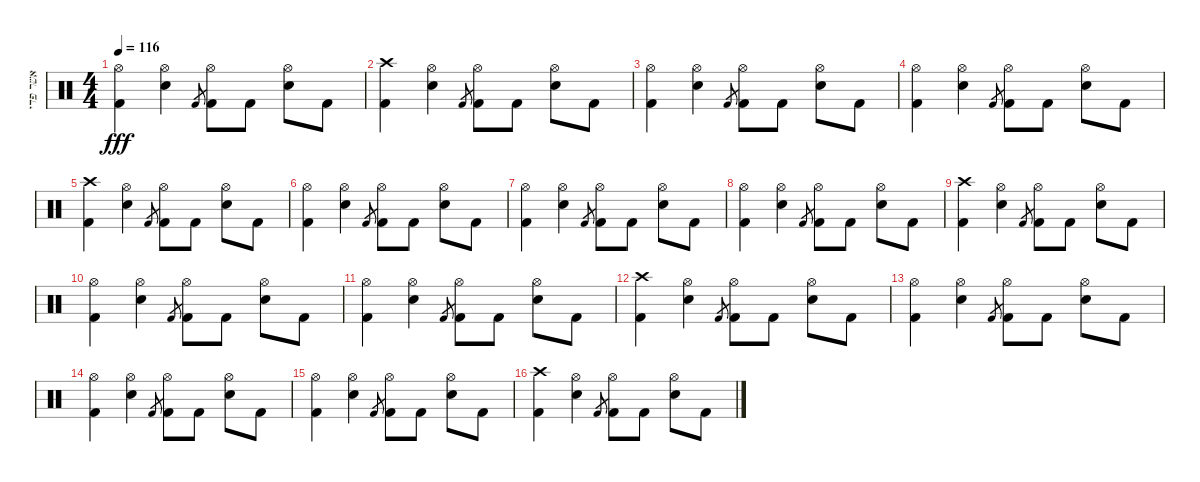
\track ("אשר פדי" "אשר פדי") {instrument percussion}
\staff {score}
\articulation defaults
\ts (4 4)
\tempo 116
\clef neutral
\ks c
("Hi-Hat (open)" "Kick (hit) 2").4{dy fff} ("Hi-Hat (open)" "Electric Snare (hit)").4 "Kick (hit) 2".8{gr} ("Hi-Hat (open)" "Kick (hit) 2").8 "Kick (hit) 2".8 ("Hi-Hat (open)" "Electric Snare (hit)").8 "Kick (hit) 2".8 |
("Crash high (hit)" "Kick (hit) 2").4 ("Hi-Hat (open)" "Electric Snare (hit)").4 "Kick (hit) 2".8{gr} ("Hi-Hat (open)" "Kick (hit) 2").8 "Kick (hit) 2".8 ("Hi-Hat (open)" "Snare (hit) 2").8 "Kick (hit) 2".8 |
("Hi-Hat (open)" "Kick (hit) 2").4 ("Hi-Hat (open)" "Snare (hit) 2").4 "Kick (hit) 2".8{gr} ("Hi-Hat (open)" "Kick (hit) 2").8 "Kick (hit) 2".8 ("Hi-Hat (open)" "Electric Snare (hit)").8 "Kick (hit) 2".8 |
("Hi-Hat (open)" "Kick (hit) 2").4 ("Hi-Hat (open)" "Electric Snare (hit)").4 "Kick (hit) 2".8{gr} ("Hi-Hat (open)" "Kick (hit) 2").8 "Kick (hit) 2".8 ("Hi-Hat (open)" "Electric Snare (hit)").8 "Kick (hit) 2".8 |
("Crash high (hit)" "Kick (hit) 2").4 ("Hi-Hat (open)" "Electric Snare (hit)").4 "Kick (hit) 2".8{gr} ("Hi-Hat (open)" "Kick (hit) 2").8 "Kick (hit) 2".8 ("Hi-Hat (open)" "Snare (hit) 2").8 "Kick (hit) 2".8 |
("Hi-Hat (open)" "Kick (hit) 2").4 ("Hi-Hat (open)" "Snare (hit) 2").4 "Kick (hit) 2".8{gr} ("Hi-Hat (open)" "Kick (hit) 2").8 "Kick (hit) 2".8 ("Hi-Hat (open)" "Electric Snare (hit)").8 "Kick (hit) 2".8 |
("Hi-Hat (open)" "Kick (hit) 2").4 ("Hi-Hat (open)" "Electric Snare (hit)").4 "Kick (hit) 2".8{gr} ("Hi-Hat (open)" "Kick (hit) 2").8 "Kick (hit) 2".8 ("Hi-Hat (open)" "Electric Snare (hit)").8 "Kick (hit) 2".8 |
("Hi-Hat (open)" "Kick (hit) 2").4 ("Hi-Hat (open)" "Electric Snare (hit)").4 "Kick (hit) 2".8{gr} ("Hi-Hat (open)" "Kick (hit) 2").8 "Kick (hit) 2".8 ("Hi-Hat (open)" "Electric Snare (hit)").8 "Kick (hit) 2".8 |
("Crash high (hit)" "Kick (hit) 2").4 ("Hi-Hat (open)" "Electric Snare (hit)").4 "Kick (hit) 2".8{gr} ("Hi-Hat (open)" "Kick (hit) 2").8 "Kick (hit) 2".8 ("Hi-Hat (open)" "Snare (hit) 2").8 "Kick (hit) 2".8 |
("Hi-Hat (open)" "Kick (hit) 2").4 ("Hi-Hat (open)" "Snare (hit) 2").4 "Kick (hit) 2".8{gr} ("Hi-Hat (open)" "Kick (hit) 2").8 "Kick (hit) 2".8 ("Hi-Hat (open)" "Electric Snare (hit)").8 "Kick (hit) 2".8 |
("Hi-Hat (open)" "Kick (hit) 2").4 ("Hi-Hat (open)" "Electric Snare (hit)").4 "Kick (hit) 2".8{gr} ("Hi-Hat (open)" "Kick (hit) 2").8 "Kick (hit) 2".8 ("Hi-Hat (open)" "Electric Snare (hit)").8 "Kick (hit) 2".8 |
("Crash high (hit)" "Kick (hit) 2").4 ("Hi-Hat (open)" "Electric Snare (hit)").4 "Kick (hit) 2".8{gr} ("Hi-Hat (open)" "Kick (hit) 2").8 "Kick (hit) 2".8 ("Hi-Hat (open)" "Snare (hit) 2").8 "Kick (hit) 2".8 |
("Hi-Hat (open)" "Kick (hit) 2").4 ("Hi-Hat (open)" "Snare (hit) 2").4 "Kick (hit) 2".8{gr} ("Hi-Hat (open)" "Kick (hit) 2").8 "Kick (hit) 2".8 ("Hi-Hat (open)" "Electric Snare (hit)").8 "Kick (hit) 2".8 |
("Hi-Hat (open)" "Kick (hit) 2").4 ("Hi-Hat (open)" "Electric Snare (hit)").4 "Kick (hit) 2".8{gr} ("Hi-Hat (open)" "Kick (hit) 2").8 "Kick (hit) 2".8 ("Hi-Hat (open)" "Electric Snare (hit)").8 "Kick (hit) 2".8 |
("Hi-Hat (open)" "Kick (hit) 2").4 ("Hi-Hat (open)" "Electric Snare (hit)").4 "Kick (hit) 2".8{gr} ("Hi-Hat (open)" "Kick (hit) 2").8 "Kick (hit) 2".8 ("Hi-Hat (open)" "Electric Snare (hit)").8 "Kick (hit) 2".8 |
("Crash high (hit)" "Kick (hit) 2").4 ("Hi-Hat (open)" "Electric Snare (hit)").4 "Kick (hit) 2".8{gr} ("Hi-Hat (open)" "Kick (hit) 2").8 "Kick (hit) 2".8 ("Hi-Hat (open)" "Snare (hit) 2").8 "Kick (hit) 2".8
